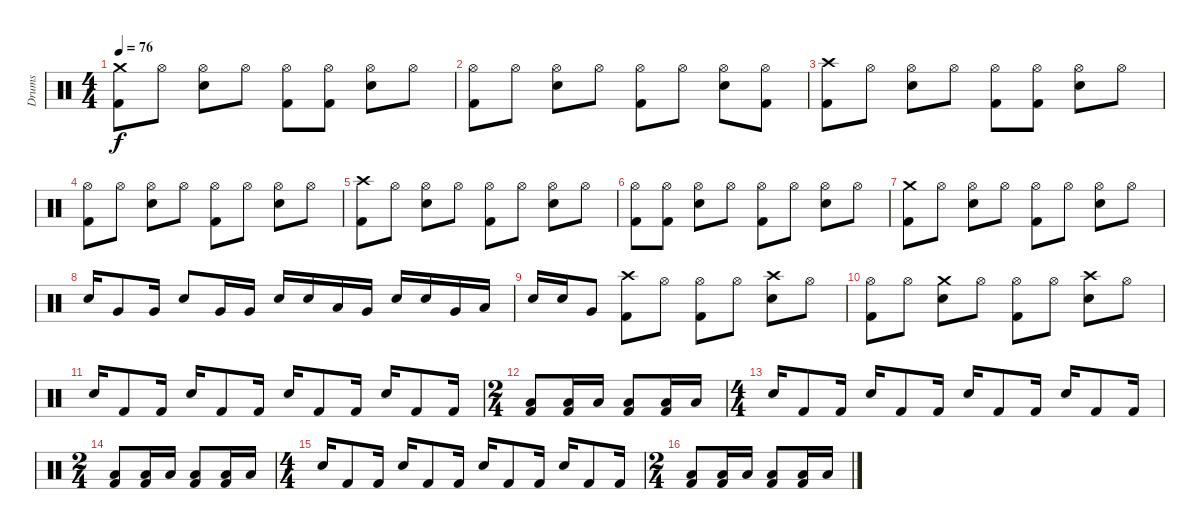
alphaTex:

\track ("Drums" "Drums") {instrument percussion}
\staff {score}
\articulation defaults
\ts (4 4)
\tempo 76
\clef neutral
\ks c
("Crash medium (hit)" "Kick (hit) 2").8{dy f} "Hi-Hat (open)".8 ("Hi-Hat (open)" "Snare (hit) 2").8 "Hi-Hat (open)".8 ("Kick (hit) 2" "Hi-Hat (open)").8 ("Kick (hit) 2" "Hi-Hat (open)").8 ("Snare (hit) 2" "Hi-Hat (open)").8 "Hi-Hat (open)".8 |
("Kick (hit) 2" "Hi-Hat (open)").8 "Hi-Hat (open)".8 ("Snare (hit) 2" "Hi-Hat (open)").8 "Hi-Hat (open)".8 ("Kick (hit) 2" "Hi-Hat (open)").8 "Hi-Hat (open)".8 ("Snare (hit) 2" "Hi-Hat (open)").8 ("Kick (hit) 2" "Hi-Hat (open)").8 |
("Crash high (hit)" "Kick (hit) 2").8 "Hi-Hat (open)".8 ("Snare (hit) 2" "Hi-Hat (open)").8 "Hi-Hat (open)".8 ("Hi-Hat (open)" "Kick (hit) 2").8 ("Hi-Hat (open)" "Kick (hit) 2").8 ("Hi-Hat (open)" "Snare (hit) 2").8 "Hi-Hat (open)".8 |
("Kick (hit) 2" "Hi-Hat (open)").8 "Hi-Hat (open)".8 ("Hi-Hat (open)" "Snare (hit) 2").8 "Hi-Hat (open)".8 ("Hi-Hat (open)" "Kick (hit) 2").8 "Hi-Hat (open)".8 ("Snare (hit) 2" "Hi-Hat (open)").8 "Hi-Hat (open)".8 |
("Crash high (hit)" "Kick (hit) 2").8 "Hi-Hat (open)".8 ("Snare (hit) 2" "Hi-Hat (open)").8 "Hi-Hat (open)".8 ("Hi-Hat (open)" "Kick (hit) 2").8 "Hi-Hat (open)".8 ("Snare (hit) 2" "Hi-Hat (open)").8 "Hi-Hat (open)".8 |
("Kick (hit) 2" "Hi-Hat (open)").8 ("Kick (hit) 2" "Hi-Hat (open)").8 ("Snare (hit) 2" "Hi-Hat (open)").8 "Hi-Hat (open)".8 ("Hi-Hat (open)" "Kick (hit) 2").8 "Hi-Hat (open)".8 ("Hi-Hat (open)" "Snare (hit) 2").8 "Hi-Hat (open)".8 |
("Crash medium (hit)" "Kick (hit) 2").8 "Hi-Hat (open)".8 ("Snare (hit) 2" "Hi-Hat (open)").8 "Hi-Hat (open)".8 ("Kick (hit) 2" "Hi-Hat (open)").8 "Hi-Hat (open)".8 ("Snare (hit) 2" "Hi-Hat (open)").8 "Hi-Hat (open)".8 |
"Snare (hit) 2".16 "Very Low Tom (hit)".8 "Very Low Tom (hit)".16 "Snare (hit) 2".8 "Very Low Tom (hit)".16 "Very Low Tom (hit)".16 "Snare (hit) 2".16 "Snare (hit) 2".16 "Low Tom (hit)".16 "Very Low Tom (hit)".16 "Snare (hit) 2".16 "Snare (hit) 2".16 "Very Low Tom (hit)".16 "Low Floor Tom (hit)".16 |
"Snare (hit) 2".16 "Snare (hit) 2".16 "Very Low Tom (hit)".8 ("Crash high (hit)" "Kick (hit) 2").8 "Hi-Hat (open)".8 ("Kick (hit) 2" "Hi-Hat (open)").8 "Hi-Hat (open)".8 ("Snare (hit) 2" "Crash high (hit)").8 "Hi-Hat (open)".8 |
("Hi-Hat (open)" "Kick (hit) 2").8 "Hi-Hat (open)".8 ("Snare (hit) 2" "Crash medium (hit)").8 "Hi-Hat (open)".8 ("Kick (hit) 2" "Hi-Hat (open)").8 "Hi-Hat (open)".8 ("Crash high (hit)" "Snare (hit) 2").8 "Hi-Hat (open)".8 |
"Snare (hit) 2".16 "Kick (hit) 2".8 "Kick (hit) 2".16 "Snare (hit) 2".16 "Kick (hit) 2".8 "Kick (hit) 2".16 "Snare (hit) 2".16 "Kick (hit) 2".8 "Kick (hit) 2".16 "Snare (hit) 2".16 "Kick (hit) 2".8 "Kick (hit) 2".16 |
\ts (2 4)
("Low Floor Tom (hit)" "Kick (hit) 2").8 ("Kick (hit) 2" "Low Floor Tom (hit)").16 "Low Floor Tom (hit)".16 ("Low Floor Tom (hit)" "Kick (hit) 2").8 ("Kick (hit) 2" "Low Floor Tom (hit)").16 "Low Floor Tom (hit)".16 |
\ts (4 4)
"Snare (hit) 2".16 "Kick (hit) 2".8 "Kick (hit) 2".16 "Snare (hit) 2".16 "Kick (hit) 2".8 "Kick (hit) 2".16 "Snare (hit) 2".16 "Kick (hit) 2".8 "Kick (hit) 2".16 "Snare (hit) 2".16 "Kick (hit) 2".8 "Kick (hit) 2".16 |
\ts (2 4)
("Low Floor Tom (hit)" "Kick (hit) 2").8 ("Kick (hit) 2" "Low Floor Tom (hit)").16 "Low Floor Tom (hit)".16 ("Low Floor Tom (hit)" "Kick (hit) 2").8 ("Kick (hit) 2" "Low Floor Tom (hit)").16 "Low Floor Tom (hit)".16 |
\ts (4 4)
"Snare (hit) 2".16 "Kick (hit) 2".8 "Kick (hit) 2".16 "Snare (hit) 2".16 "Kick (hit) 2".8 "Kick (hit) 2".16 "Snare (hit) 2".16 "Kick (hit) 2".8 "Kick (hit) 2".16 "Snare (hit) 2".16 "Kick (hit) 2".8 "Kick (hit) 2".16 |
\ts (2 4)
("Kick (hit) 2" "Low Floor Tom (hit)").8 ("Kick (hit) 2" "Low Floor Tom (hit)").16 "Low Floor Tom (hit)".16 ("Kick (hit) 2" "Low Floor Tom (hit)").8 ("Kick (hit) 2" "Low Floor Tom (hit)").16 "Low Floor Tom (hit)".16
